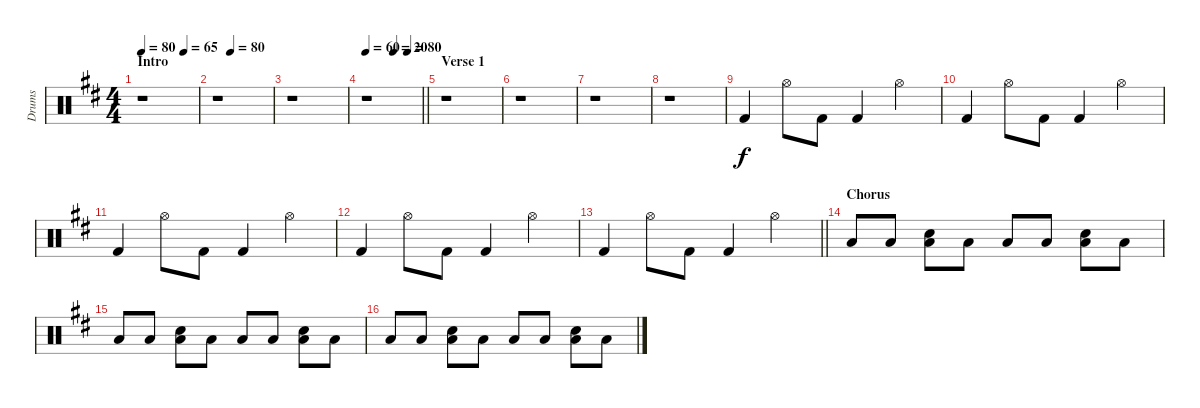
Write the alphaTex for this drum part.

\track ("Drums" "Drums") {instrument percussion}
\staff {score}
\articulation defaults
\ts (4 4)
\section ("" "Intro")
\tempo 80
\tempo (65 0.75)
\tempo 80
\clef neutral
\ks d
r.1{dy f} |
\tempo (80 0.25)
r.1 |
r.1 |
\tempo 60
\tempo (20 0.5)
\tempo (80 0.75)
\barLineRight lightlight
r.1 |
\section ("" "Verse 1")
r.1 |
r.1 |
r.1 |
r.1 |
"Kick (hit) 2".4 "Hi-Hat (open)".8 "Kick (hit) 2".8 "Kick (hit) 2".4 "Hi-Hat (open)".4 |
"Kick (hit) 2".4 "Hi-Hat (open)".8 "Kick (hit) 2".8 "Kick (hit) 2".4 "Hi-Hat (open)".4 |
"Kick (hit) 2".4 "Hi-Hat (open)".8 "Kick (hit) 2".8 "Kick (hit) 2".4 "Hi-Hat (open)".4 |
"Kick (hit) 2".4 "Hi-Hat (open)".8 "Kick (hit) 2".8 "Kick (hit) 2".4 "Hi-Hat (open)".4 |
\barLineRight lightlight "Kick (hit) 2".4 "Hi-Hat (open)".8 "Kick (hit) 2".8 "Kick (hit) 2".4 "Hi-Hat (open)".4
|
\section ("" "Chorus")
"Low Tom (hit)".8 "Low Floor Tom (hit)".8 ("Low Tom (hit)" "Snare (hit) 2").8 "Low Floor Tom (hit)".8 "Low Tom (hit)".8 "Low Floor Tom (hit)".8 ("Low Tom (hit)" "Snare (hit) 2").8 "Low Floor Tom (hit)".8 |
"Low Tom (hit)".8 "Low Floor Tom (hit)".8 ("Low Tom (hit)" "Snare (hit) 2").8 "Low Floor Tom (hit)".8 "Low Tom (hit)".8 "Low Floor Tom (hit)".8 ("Low Tom (hit)" "Snare (hit) 2").8 "Low Floor Tom (hit)".8 |
"Low Tom (hit)".8 "Low Floor Tom (hit)".8 ("Low Tom (hit)" "Snare (hit) 2").8 "Low Floor Tom (hit)".8 "Low Tom (hit)".8 "Low Floor Tom (hit)".8 ("Low Tom (hit)" "Snare (hit) 2").8 "Low Floor Tom (hit)".8
